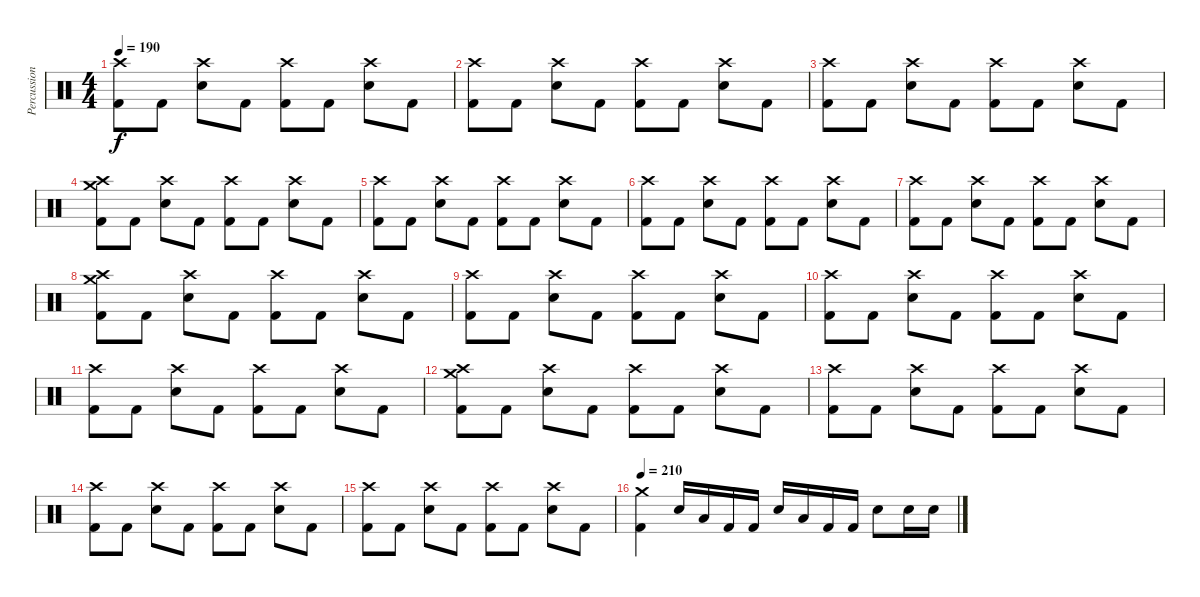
\track ("Percussion" "Percussion") {instrument percussion}
\staff {score}
\articulation defaults
\ts (4 4)
\tempo 190
\clef neutral
\ks c
("Crash high (hit)" "Kick (hit) 2").8{dy f} "Kick (hit) 2".8 ("Crash high (hit)" "Electric Snare (hit)").8 "Kick (hit) 2".8 ("Crash high (hit)" "Kick (hit) 2").8 "Kick (hit) 2".8 ("Crash high (hit)" "Electric Snare (hit)").8 "Kick (hit) 2".8 |
("Crash high (hit)" "Kick (hit) 2").8 "Kick (hit) 2".8 ("Crash high (hit)" "Electric Snare (hit)").8 "Kick (hit) 2".8 ("Crash high (hit)" "Kick (hit) 2").8 "Kick (hit) 2".8 ("Crash high (hit)" "Electric Snare (hit)").8 "Kick (hit) 2".8 |
("Crash high (hit)" "Kick (hit) 2").8 "Kick (hit) 2".8 ("Crash high (hit)" "Electric Snare (hit)").8 "Kick (hit) 2".8 ("Crash high (hit)" "Kick (hit) 2").8 "Kick (hit) 2".8 ("Crash high (hit)" "Electric Snare (hit)").8 "Kick (hit) 2".8 |
("Crash high (hit)" "Crash medium (hit)" "Kick (hit) 2").8 "Kick (hit) 2".8 ("Crash high (hit)" "Electric Snare (hit)").8 "Kick (hit) 2".8 ("Crash high (hit)" "Kick (hit) 2").8 "Kick (hit) 2".8 ("Crash high (hit)" "Electric Snare (hit)").8 "Kick (hit) 2".8 |
("Crash high (hit)" "Kick (hit) 2").8 "Kick (hit) 2".8 ("Crash high (hit)" "Electric Snare (hit)").8 "Kick (hit) 2".8 ("Crash high (hit)" "Kick (hit) 2").8 "Kick (hit) 2".8 ("Crash high (hit)" "Electric Snare (hit)").8 "Kick (hit) 2".8 |
("Crash high (hit)" "Kick (hit) 2").8 "Kick (hit) 2".8 ("Crash high (hit)" "Electric Snare (hit)").8 "Kick (hit) 2".8 ("Crash high (hit)" "Kick (hit) 2").8 "Kick (hit) 2".8 ("Crash high (hit)" "Electric Snare (hit)").8 "Kick (hit) 2".8 |
("Crash high (hit)" "Kick (hit) 2").8 "Kick (hit) 2".8 ("Crash high (hit)" "Electric Snare (hit)").8 "Kick (hit) 2".8 ("Crash high (hit)" "Kick (hit) 2").8 "Kick (hit) 2".8 ("Crash high (hit)" "Electric Snare (hit)").8 "Kick (hit) 2".8 |
("Crash high (hit)" "Crash medium (hit)" "Kick (hit) 2").8 "Kick (hit) 2".8 ("Crash high (hit)" "Electric Snare (hit)").8 "Kick (hit) 2".8 ("Crash high (hit)" "Kick (hit) 2").8 "Kick (hit) 2".8 ("Crash high (hit)" "Electric Snare (hit)").8 "Kick (hit) 2".8 |
("Crash high (hit)" "Kick (hit) 2").8 "Kick (hit) 2".8 ("Crash high (hit)" "Electric Snare (hit)").8 "Kick (hit) 2".8 ("Crash high (hit)" "Kick (hit) 2").8 "Kick (hit) 2".8 ("Crash high (hit)" "Electric Snare (hit)").8 "Kick (hit) 2".8 |
("Crash high (hit)" "Kick (hit) 2").8 "Kick (hit) 2".8 ("Crash high (hit)" "Electric Snare (hit)").8 "Kick (hit) 2".8 ("Crash high (hit)" "Kick (hit) 2").8 "Kick (hit) 2".8 ("Crash high (hit)" "Electric Snare (hit)").8 "Kick (hit) 2".8 |
("Crash high (hit)" "Kick (hit) 2").8 "Kick (hit) 2".8 ("Crash high (hit)" "Electric Snare (hit)").8 "Kick (hit) 2".8 ("Crash high (hit)" "Kick (hit) 2").8 "Kick (hit) 2".8 ("Crash high (hit)" "Electric Snare (hit)").8 "Kick (hit) 2".8 |
("Crash high (hit)" "Crash medium (hit)" "Kick (hit) 2").8 "Kick (hit) 2".8 ("Crash high (hit)" "Electric Snare (hit)").8 "Kick (hit) 2".8 ("Crash high (hit)" "Kick (hit) 2").8 "Kick (hit) 2".8 ("Crash high (hit)" "Electric Snare (hit)").8 "Kick (hit) 2".8 |
("Crash high (hit)" "Kick (hit) 2").8 "Kick (hit) 2".8 ("Crash high (hit)" "Electric Snare (hit)").8 "Kick (hit) 2".8 ("Crash high (hit)" "Kick (hit) 2").8 "Kick (hit) 2".8 ("Crash high (hit)" "Electric Snare (hit)").8 "Kick (hit) 2".8 |
("Crash high (hit)" "Kick (hit) 2").8 "Kick (hit) 2".8 ("Crash high (hit)" "Electric Snare (hit)").8 "Kick (hit) 2".8 ("Crash high (hit)" "Kick (hit) 2").8 "Kick (hit) 2".8 ("Crash high (hit)" "Electric Snare (hit)").8 "Kick (hit) 2".8 |
("Crash high (hit)" "Kick (hit) 2").8 "Kick (hit) 2".8 ("Crash high (hit)" "Electric Snare (hit)").8 "Kick (hit) 2".8 ("Crash high (hit)" "Kick (hit) 2").8 "Kick (hit) 2".8 ("Crash high (hit)" "Electric Snare (hit)").8 "Kick (hit) 2".8 |
\tempo 210
("Crash medium (hit)" "Kick (hit) 2").4 "Electric Snare (hit)".16 "Low Tom (hit)".16 "Kick (hit) 2".16 "Kick (hit) 2".16 "Electric Snare (hit)".16 "Low Tom (hit)".16 "Kick (hit) 2".16 "Kick (hit) 2".16 "Electric Snare (hit)".8 "Electric Snare (hit)".16 "Electric Snare (hit)".16
